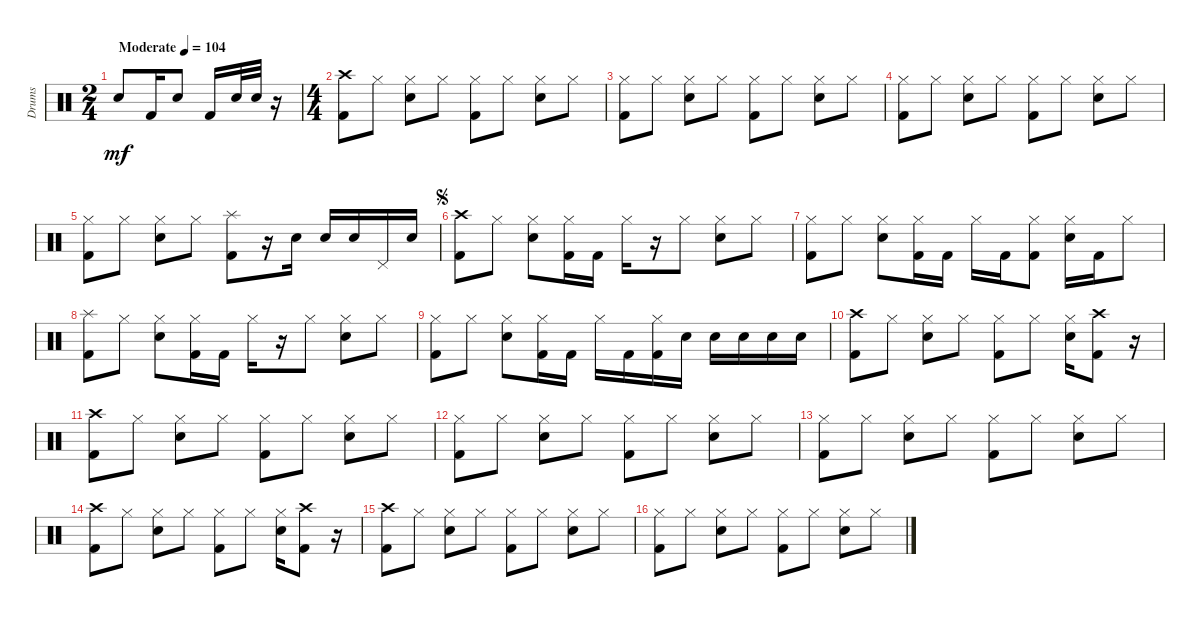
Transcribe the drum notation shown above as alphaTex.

\track ("Drums" "Drums") {instrument percussion}
\staff {score}
\articulation defaults
\ts (2 4)
\tempo (104 "Moderate")
\clef neutral
\ks c "Electric Snare (hit)".8{dy mf} "Kick (hit) 2".16 "Electric Snare (hit)".8 "Kick (hit) 2".16 "Electric Snare (hit)".32 "Electric Snare (hit)".32
r.16 |
\ts (4 4)
("Crash high (hit)" "Kick (hit) 2").8 "Hi-Hat (closed)".8 ("Hi-Hat (closed)" "Electric Snare (hit)").8 "Hi-Hat (closed)".8 ("Hi-Hat (closed)" "Kick (hit) 2").8 "Hi-Hat (closed)".8 ("Hi-Hat (closed)" "Electric Snare (hit)").8 "Hi-Hat (closed)".8 |
("Hi-Hat (closed)" "Kick (hit) 2").8 "Hi-Hat (closed)".8 ("Hi-Hat (closed)" "Electric Snare (hit)").8 "Hi-Hat (closed)".8 ("Hi-Hat (closed)" "Kick (hit) 2").8 "Hi-Hat (closed)".8 ("Hi-Hat (closed)" "Electric Snare (hit)").8 "Hi-Hat (closed)".8 |
("Hi-Hat (closed)" "Kick (hit) 2").8 "Hi-Hat (closed)".8 ("Hi-Hat (closed)" "Electric Snare (hit)").8 "Hi-Hat (closed)".8 ("Hi-Hat (closed)" "Kick (hit) 2").8 "Hi-Hat (closed)".8 ("Hi-Hat (closed)" "Electric Snare (hit)").8 "Hi-Hat (closed)".8 |
("Hi-Hat (closed)" "Kick (hit) 2").8 "Hi-Hat (closed)".8 ("Hi-Hat (closed)" "Electric Snare (hit)").8 "Hi-Hat (closed)".8 ("Splash (hit)" "Kick (hit) 2").8 r.16 "Electric Snare (hit)".16 "Electric Snare (hit)".16 "Electric Snare (hit)".16 "Pedal Hi-Hat (hit)".16 "Electric Snare (hit)".16 |
\jump segno
("Crash high (hit)" "Kick (hit) 2").8 "Hi-Hat (closed)".8 ("Hi-Hat (closed)" "Electric Snare (hit)").8 ("Hi-Hat (closed)" "Kick (hit) 2").16 "Kick (hit) 2".16 "Hi-Hat (closed)".16 r.16 "Hi-Hat (closed)".8 ("Hi-Hat (closed)" "Electric Snare (hit)").8 "Hi-Hat (closed)".8 |
("Hi-Hat (closed)" "Kick (hit) 2").8 "Hi-Hat (closed)".8 ("Hi-Hat (closed)" "Electric Snare (hit)").8 ("Hi-Hat (closed)" "Kick (hit) 2").16 "Kick (hit) 2".16 "Hi-Hat (closed)".16 "Kick (hit) 2".16 ("Hi-Hat (closed)" "Kick (hit) 2").8 ("Hi-Hat (closed)" "Electric Snare (hit)").16 "Kick (hit) 2".16 "Hi-Hat (closed)".8 |
("Splash (hit)" "Kick (hit) 2").8 "Hi-Hat (closed)".8 ("Hi-Hat (closed)" "Electric Snare (hit)").8 ("Hi-Hat (closed)" "Kick (hit) 2").16 "Kick (hit) 2".16 "Hi-Hat (closed)".16 r.16 "Hi-Hat (closed)".8 ("Hi-Hat (closed)" "Electric Snare (hit)").8 "Hi-Hat (closed)".8 |
("Hi-Hat (closed)" "Kick (hit) 2").8 "Hi-Hat (closed)".8 ("Hi-Hat (closed)" "Electric Snare (hit)").8 ("Hi-Hat (closed)" "Kick (hit) 2").16 "Kick (hit) 2".16 "Hi-Hat (closed)".16 "Kick (hit) 2".16 ("Hi-Hat (closed)" "Kick (hit) 2").16 "Electric Snare (hit)".16 "Electric Snare (hit)".16 "Electric Snare (hit)".16 "Electric Snare (hit)".16 "Electric Snare (hit)".16 |
("Crash high (hit)" "Kick (hit) 2").8 "Hi-Hat (closed)".8 ("Hi-Hat (closed)" "Electric Snare (hit)").8 "Hi-Hat (closed)".8 ("Hi-Hat (closed)" "Kick (hit) 2").8 "Hi-Hat (closed)".8 ("Hi-Hat (closed)" "Electric Snare (hit)").16 ("Crash high (hit)" "Kick (hit) 2").8 r.16 |
("Crash high (hit)" "Kick (hit) 2").8 "Hi-Hat (closed)".8 ("Hi-Hat (closed)" "Electric Snare (hit)").8 "Hi-Hat (closed)".8 ("Hi-Hat (closed)" "Kick (hit) 2").8 "Hi-Hat (closed)".8 ("Hi-Hat (closed)" "Electric Snare (hit)").8 "Hi-Hat (closed)".8 |
("Hi-Hat (closed)" "Kick (hit) 2").8 "Hi-Hat (closed)".8 ("Hi-Hat (closed)" "Electric Snare (hit)").8 "Hi-Hat (closed)".8 ("Hi-Hat (closed)" "Kick (hit) 2").8 "Hi-Hat (closed)".8 ("Hi-Hat (closed)" "Electric Snare (hit)").8 "Hi-Hat (closed)".8 |
("Hi-Hat (closed)" "Kick (hit) 2").8 "Hi-Hat (closed)".8 ("Hi-Hat (closed)" "Electric Snare (hit)").8 "Hi-Hat (closed)".8 ("Hi-Hat (closed)" "Kick (hit) 2").8 "Hi-Hat (closed)".8 ("Hi-Hat (closed)" "Electric Snare (hit)").8 "Hi-Hat (closed)".8 |
("Crash high (hit)" "Kick (hit) 2").8 "Hi-Hat (closed)".8 ("Hi-Hat (closed)" "Electric Snare (hit)").8 "Hi-Hat (closed)".8 ("Hi-Hat (closed)" "Kick (hit) 2").8 "Hi-Hat (closed)".8 ("Hi-Hat (closed)" "Electric Snare (hit)").16 ("Crash high (hit)" "Kick (hit) 2").8 r.16 |
("Crash high (hit)" "Kick (hit) 2").8 "Hi-Hat (closed)".8 ("Hi-Hat (closed)" "Electric Snare (hit)").8 "Hi-Hat (closed)".8 ("Hi-Hat (closed)" "Kick (hit) 2").8 "Hi-Hat (closed)".8 ("Hi-Hat (closed)" "Electric Snare (hit)").8 "Hi-Hat (closed)".8 |
("Hi-Hat (closed)" "Kick (hit) 2").8 "Hi-Hat (closed)".8 ("Hi-Hat (closed)" "Electric Snare (hit)").8 "Hi-Hat (closed)".8 ("Hi-Hat (closed)" "Kick (hit) 2").8 "Hi-Hat (closed)".8 ("Hi-Hat (closed)" "Electric Snare (hit)").8 "Hi-Hat (closed)".8
